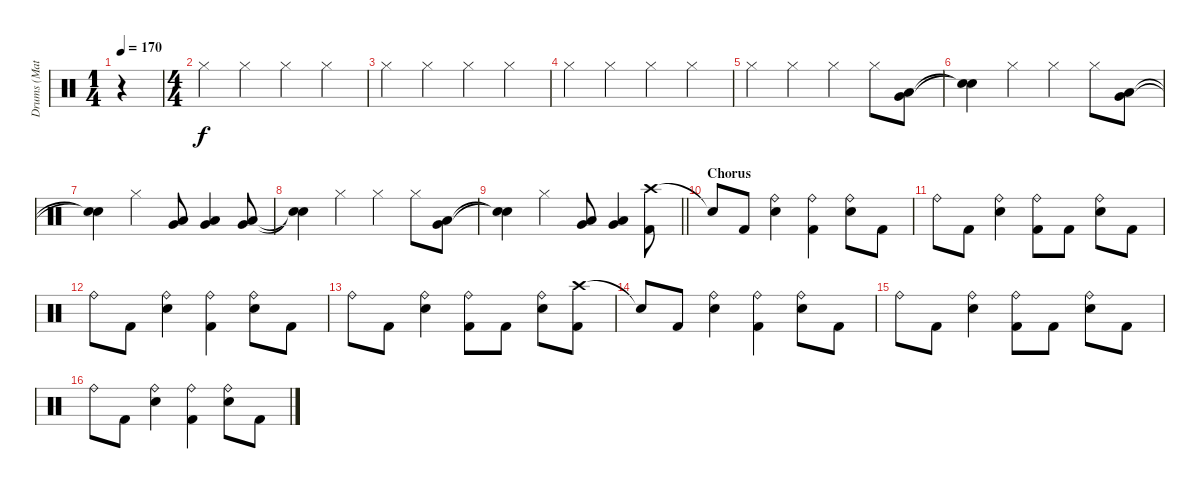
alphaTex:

\track ("Drums (Matt)" "Drums (Mat") {instrument percussion}
\staff {score}
\articulation defaults
\ts (1 4)
\tempo 170
\clef neutral
\ks c
r.4{dy f} |
\ts (4 4)
"Hi-Hat (closed)".4 "Hi-Hat (closed)".4 "Hi-Hat (closed)".4 "Hi-Hat (closed)".4 |
"Hi-Hat (closed)".4 "Hi-Hat (closed)".4 "Hi-Hat (closed)".4 "Hi-Hat (closed)".4 |
"Hi-Hat (closed)".4 "Hi-Hat (closed)".4 "Hi-Hat (closed)".4 "Hi-Hat (closed)".4 |
"Hi-Hat (closed)".4 "Hi-Hat (closed)".4 "Hi-Hat (closed)".4 "Hi-Hat (closed)".8 ("Low Tom (hit)" "Very Low Tom (hit)").8 |
("Snare (hit)"{t} "Snare (hit)"{t}).4 "Hi-Hat (closed)".4 "Hi-Hat (closed)".4 "Hi-Hat (closed)".8 ("Low Tom (hit)" "Very Low Tom (hit)").8 |
("Snare (hit)"{t} "Snare (hit)"{t}).4 "Hi-Hat (closed)".4 ("Low Tom (hit)" "Very Low Tom (hit)").8 ("Low Tom (hit)" "Very Low Tom (hit)").4 ("Low Tom (hit)" "Very Low Tom (hit)").8 |
("Snare (hit)"{t} "Snare (hit)"{t}).4 "Hi-Hat (closed)".4 "Hi-Hat (closed)".4 "Hi-Hat (closed)".8 ("Low Tom (hit)" "Very Low Tom (hit)").8 |
\barLineRight lightlight
("Snare (hit)"{t} "Snare (hit)"{t}).4 "Hi-Hat (closed)".4 ("Low Tom (hit)" "Very Low Tom (hit)").8 ("Low Tom (hit)" "Very Low Tom (hit)").4 ("Crash high (hit)" "Kick (hit) 2").8 |
\section ("" "Chorus")
"Snare (hit)"{t}.8 "Kick (hit) 2".8 ("Ride (bell)" "Snare (hit) 2").4 ("Ride (bell)" "Kick (hit) 2").4 ("Ride (bell)" "Snare (hit) 2").8 "Kick (hit) 2".8 |
"Ride (bell)".8 "Kick (hit) 2".8 ("Ride (bell)" "Snare (hit) 2").4 ("Ride (bell)" "Kick (hit) 2").8 "Kick (hit) 2".8 ("Ride (bell)" "Snare (hit) 2").8 "Kick (hit) 2".8 |
"Ride (bell)".8 "Kick (hit) 2".8 ("Ride (bell)" "Snare (hit) 2").4 ("Ride (bell)" "Kick (hit) 2").4 ("Ride (bell)" "Snare (hit) 2").8 "Kick (hit) 2".8 |
"Ride (bell)".8 "Kick (hit) 2".8 ("Ride (bell)" "Snare (hit) 2").4 ("Ride (bell)" "Kick (hit) 2").8 "Kick (hit) 2".8 ("Ride (bell)" "Snare (hit) 2").8 ("Crash high (hit)" "Kick (hit) 2").8 |
"Snare (hit)"{t}.8 "Kick (hit) 2".8 ("Ride (bell)" "Snare (hit) 2").4 ("Ride (bell)" "Kick (hit) 2").4 ("Ride (bell)" "Snare (hit) 2").8 "Kick (hit) 2".8 |
"Ride (bell)".8 "Kick (hit) 2".8 ("Ride (bell)" "Snare (hit) 2").4 ("Ride (bell)" "Kick (hit) 2").8 "Kick (hit) 2".8 ("Ride (bell)" "Snare (hit) 2").8 "Kick (hit) 2".8 |
"Ride (bell)".8 "Kick (hit) 2".8 ("Ride (bell)" "Snare (hit) 2").4 ("Ride (bell)" "Kick (hit) 2").4 ("Ride (bell)" "Snare (hit) 2").8 "Kick (hit) 2".8
